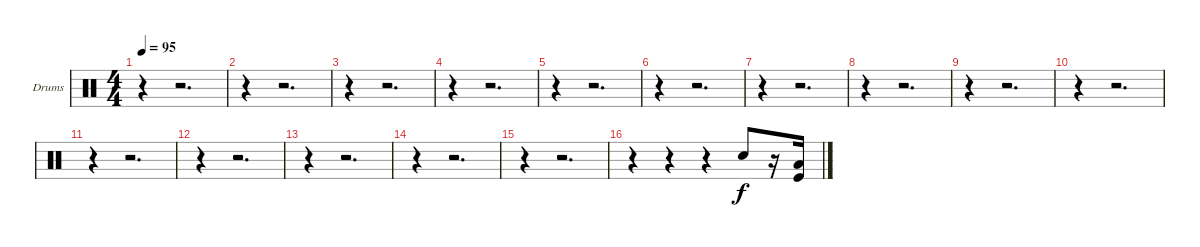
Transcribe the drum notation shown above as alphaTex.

\bracketExtendMode groupsimilarinstruments
\firstSystemTrackNameOrientation horizontal
\otherSystemsTrackNameOrientation horizontal
\track ("Drumkit" "Drums") {instrument percussion}
\staff {score}
\articulation defaults
\ts (4 4)
\tempo 95
\clef neutral
\ks c
r.4{dy f} r.2{d} |
r.4 r.2{d} |
r.4 r.2{d} |
r.4 r.2{d} |
r.4 r.2{d} |
r.4 r.2{d} |
r.4 r.2{d} |
r.4 r.2{d} |
r.4 r.2{d} |
r.4 r.2{d} |
r.4 r.2{d} |
r.4 r.2{d} |
r.4 r.2{d} |
r.4 r.2{d} |
r.4 r.2{d} |
r.4 r.4 r.4 "Snare (hit) 2".8 r.16 ("Low Tom (hit)" "Kick (hit)").16
